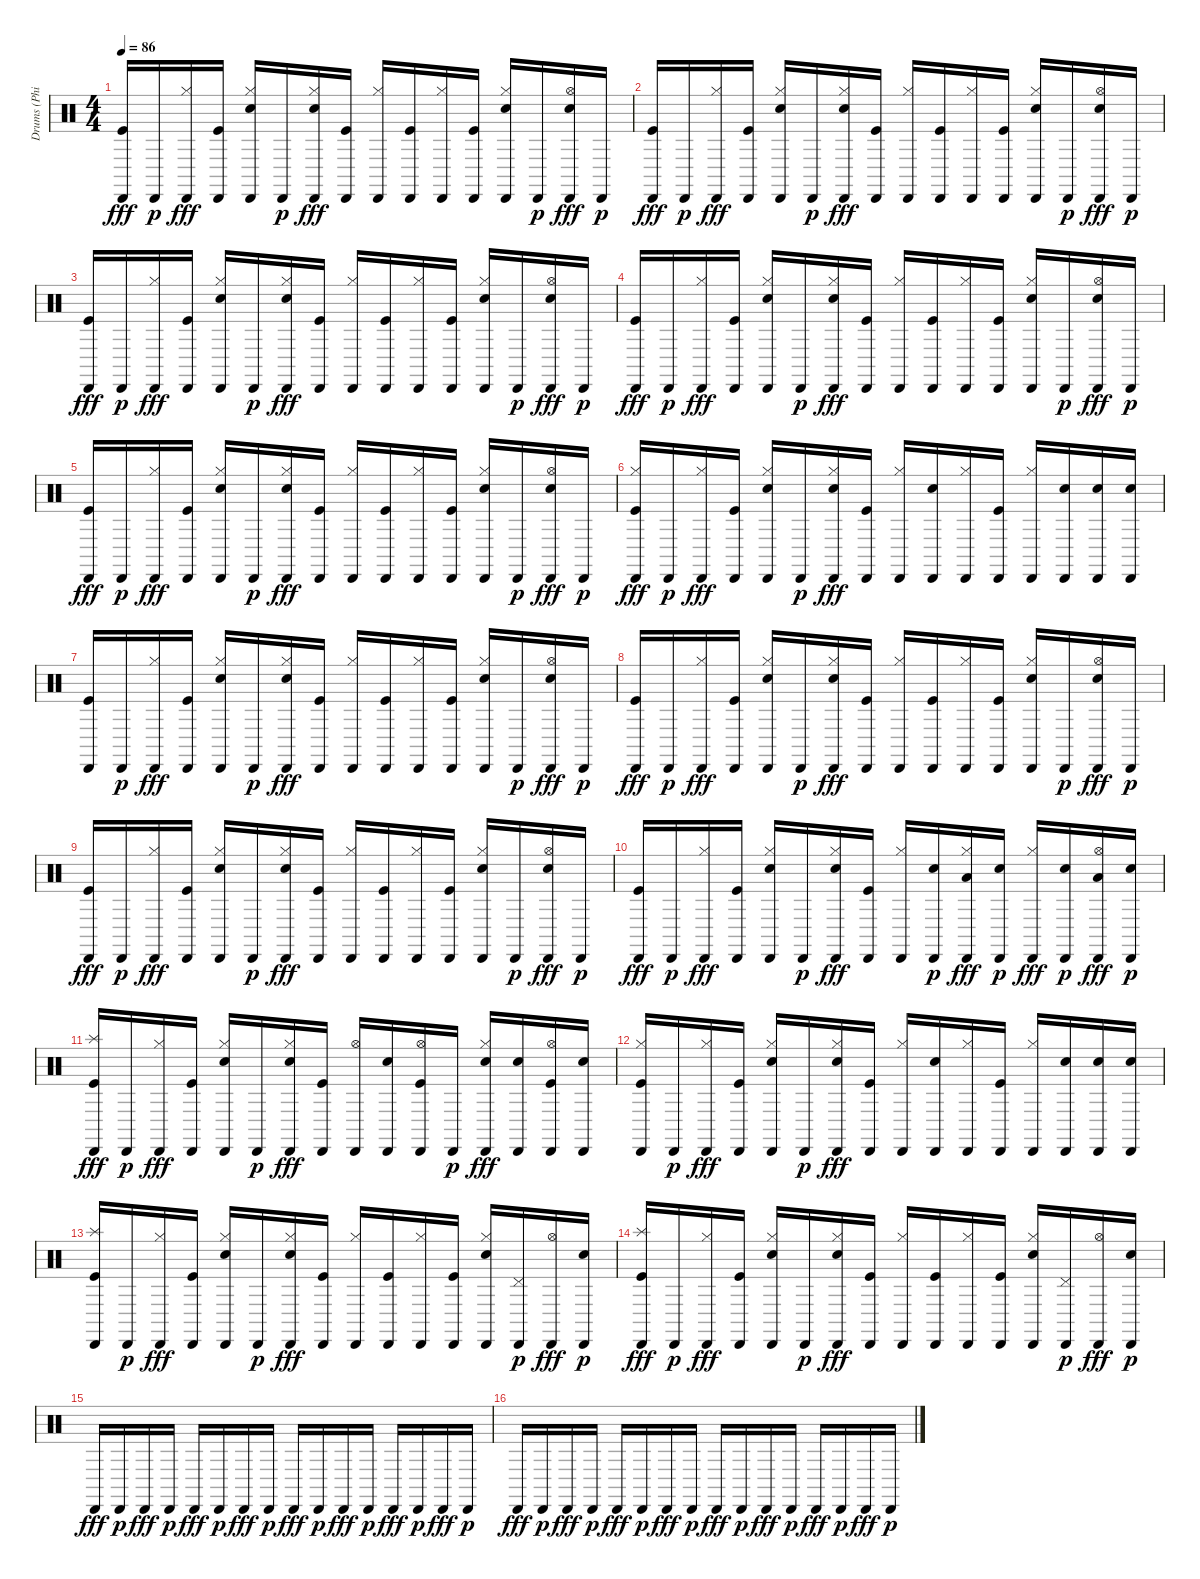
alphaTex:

\track ("Drums (Phil)" "Drums (Phi") {instrument percussion}
\staff {score}
\articulation defaults
\ts (4 4)
\tempo 86
\clef neutral
\ks c
("Cabasa (hit)" "Kick (hit)").16{dy fff} "Cabasa (hit)".16{dy p} ("Cabasa (hit)" "Hi-Hat (closed)").16{dy fff} ("Cabasa (hit)" "Kick (hit)").16 ("Cabasa (hit)" "Hi-Hat (closed)" "Snare (hit) 2").16 "Cabasa (hit)".16{dy p} ("Cabasa (hit)" "Hi-Hat (closed)" "Snare (hit) 2").16{dy fff} ("Cabasa (hit)" "Kick (hit)").16 ("Cabasa (hit)" "Hi-Hat (closed)").16 ("Cabasa (hit)" "Kick (hit)").16 ("Cabasa (hit)" "Hi-Hat (closed)").16 ("Cabasa (hit)" "Kick (hit)").16 ("Cabasa (hit)" "Hi-Hat (closed)" "Snare (hit) 2").16 "Cabasa (hit)".16{dy p} ("Cabasa (hit)" "Hi-Hat (open)" "Snare (hit) 2").16{dy fff} "Cabasa (hit)".16{dy p} |
("Cabasa (hit)" "Kick (hit)").16{dy fff} "Cabasa (hit)".16{dy p} ("Cabasa (hit)" "Hi-Hat (closed)").16{dy fff} ("Cabasa (hit)" "Kick (hit)").16 ("Cabasa (hit)" "Hi-Hat (closed)" "Snare (hit) 2").16 "Cabasa (hit)".16{dy p} ("Cabasa (hit)" "Hi-Hat (closed)" "Snare (hit) 2").16{dy fff} ("Cabasa (hit)" "Kick (hit)").16 ("Cabasa (hit)" "Hi-Hat (closed)").16 ("Cabasa (hit)" "Kick (hit)").16 ("Cabasa (hit)" "Hi-Hat (closed)").16 ("Cabasa (hit)" "Kick (hit)").16 ("Cabasa (hit)" "Hi-Hat (closed)" "Snare (hit) 2").16 "Cabasa (hit)".16{dy p} ("Cabasa (hit)" "Hi-Hat (open)" "Snare (hit) 2").16{dy fff} "Cabasa (hit)".16{dy p} |
("Cabasa (hit)" "Kick (hit)").16{dy fff} "Cabasa (hit)".16{dy p} ("Cabasa (hit)" "Hi-Hat (closed)").16{dy fff} ("Cabasa (hit)" "Kick (hit)").16 ("Cabasa (hit)" "Hi-Hat (closed)" "Snare (hit) 2").16 "Cabasa (hit)".16{dy p} ("Cabasa (hit)" "Hi-Hat (closed)" "Snare (hit) 2").16{dy fff} ("Cabasa (hit)" "Kick (hit)").16 ("Cabasa (hit)" "Hi-Hat (closed)").16 ("Cabasa (hit)" "Kick (hit)").16 ("Cabasa (hit)" "Hi-Hat (closed)").16 ("Cabasa (hit)" "Kick (hit)").16 ("Cabasa (hit)" "Hi-Hat (closed)" "Snare (hit) 2").16 "Cabasa (hit)".16{dy p} ("Cabasa (hit)" "Hi-Hat (open)" "Snare (hit) 2").16{dy fff} "Cabasa (hit)".16{dy p} |
("Cabasa (hit)" "Kick (hit)").16{dy fff} "Cabasa (hit)".16{dy p} ("Cabasa (hit)" "Hi-Hat (closed)").16{dy fff} ("Cabasa (hit)" "Kick (hit)").16 ("Cabasa (hit)" "Hi-Hat (closed)" "Snare (hit) 2").16 "Cabasa (hit)".16{dy p} ("Cabasa (hit)" "Hi-Hat (closed)" "Snare (hit) 2").16{dy fff} ("Cabasa (hit)" "Kick (hit)").16 ("Cabasa (hit)" "Hi-Hat (closed)").16 ("Cabasa (hit)" "Kick (hit)").16 ("Cabasa (hit)" "Hi-Hat (closed)").16 ("Cabasa (hit)" "Kick (hit)").16 ("Cabasa (hit)" "Hi-Hat (closed)" "Snare (hit) 2").16 "Cabasa (hit)".16{dy p} ("Cabasa (hit)" "Hi-Hat (open)" "Snare (hit) 2").16{dy fff} "Cabasa (hit)".16{dy p} |
("Cabasa (hit)" "Kick (hit)").16{dy fff} "Cabasa (hit)".16{dy p} ("Cabasa (hit)" "Hi-Hat (closed)").16{dy fff} ("Cabasa (hit)" "Kick (hit)").16 ("Cabasa (hit)" "Hi-Hat (closed)" "Snare (hit) 2").16 "Cabasa (hit)".16{dy p} ("Cabasa (hit)" "Hi-Hat (closed)" "Snare (hit) 2").16{dy fff} ("Cabasa (hit)" "Kick (hit)").16 ("Cabasa (hit)" "Hi-Hat (closed)").16 ("Cabasa (hit)" "Kick (hit)").16 ("Cabasa (hit)" "Hi-Hat (closed)").16 ("Cabasa (hit)" "Kick (hit)").16 ("Cabasa (hit)" "Hi-Hat (closed)" "Snare (hit) 2").16 "Cabasa (hit)".16{dy p} ("Cabasa (hit)" "Hi-Hat (open)" "Snare (hit) 2").16{dy fff} "Cabasa (hit)".16{dy p} |
("Cabasa (hit)" "Hi-Hat (closed)" "Kick (hit)").16{dy fff} "Cabasa (hit)".16{dy p} ("Cabasa (hit)" "Hi-Hat (closed)").16{dy fff} ("Cabasa (hit)" "Kick (hit)").16 ("Cabasa (hit)" "Hi-Hat (closed)" "Snare (hit) 2").16 "Cabasa (hit)".16{dy p} ("Cabasa (hit)" "Hi-Hat (closed)" "Snare (hit) 2").16{dy fff} ("Cabasa (hit)" "Kick (hit)").16 ("Cabasa (hit)" "Hi-Hat (closed)").16 ("Cabasa (hit)" "Snare (hit) 2").16 ("Cabasa (hit)" "Hi-Hat (closed)").16 ("Cabasa (hit)" "Kick (hit)").16 ("Cabasa (hit)" "Hi-Hat (closed)").16 ("Cabasa (hit)" "Snare (hit) 2").16 ("Cabasa (hit)" "Snare (hit) 2").16 ("Cabasa (hit)" "Snare (hit) 2").16 |
("Cabasa (hit)" "Kick (hit)").16 "Cabasa (hit)".16{dy p} ("Cabasa (hit)" "Hi-Hat (closed)").16{dy fff} ("Cabasa (hit)" "Kick (hit)").16 ("Cabasa (hit)" "Hi-Hat (closed)" "Snare (hit) 2").16 "Cabasa (hit)".16{dy p} ("Cabasa (hit)" "Hi-Hat (closed)" "Snare (hit) 2").16{dy fff} ("Cabasa (hit)" "Kick (hit)").16 ("Cabasa (hit)" "Hi-Hat (closed)").16 ("Cabasa (hit)" "Kick (hit)").16 ("Cabasa (hit)" "Hi-Hat (closed)").16 ("Cabasa (hit)" "Kick (hit)").16 ("Cabasa (hit)" "Hi-Hat (closed)" "Snare (hit) 2").16 "Cabasa (hit)".16{dy p} ("Cabasa (hit)" "Hi-Hat (open)" "Snare (hit) 2").16{dy fff} "Cabasa (hit)".16{dy p} |
("Cabasa (hit)" "Kick (hit)").16{dy fff} "Cabasa (hit)".16{dy p} ("Cabasa (hit)" "Hi-Hat (closed)").16{dy fff} ("Cabasa (hit)" "Kick (hit)").16 ("Cabasa (hit)" "Hi-Hat (closed)" "Snare (hit) 2").16 "Cabasa (hit)".16{dy p} ("Cabasa (hit)" "Hi-Hat (closed)" "Snare (hit) 2").16{dy fff} ("Cabasa (hit)" "Kick (hit)").16 ("Cabasa (hit)" "Hi-Hat (closed)").16 ("Cabasa (hit)" "Kick (hit)").16 ("Cabasa (hit)" "Hi-Hat (closed)").16 ("Cabasa (hit)" "Kick (hit)").16 ("Cabasa (hit)" "Hi-Hat (closed)" "Snare (hit) 2").16 "Cabasa (hit)".16{dy p} ("Cabasa (hit)" "Hi-Hat (open)" "Snare (hit) 2").16{dy fff} "Cabasa (hit)".16{dy p} |
("Cabasa (hit)" "Kick (hit)").16{dy fff} "Cabasa (hit)".16{dy p} ("Cabasa (hit)" "Hi-Hat (closed)").16{dy fff} ("Cabasa (hit)" "Kick (hit)").16 ("Cabasa (hit)" "Hi-Hat (closed)" "Snare (hit) 2").16 "Cabasa (hit)".16{dy p} ("Cabasa (hit)" "Hi-Hat (closed)" "Snare (hit) 2").16{dy fff} ("Cabasa (hit)" "Kick (hit)").16 ("Cabasa (hit)" "Hi-Hat (closed)").16 ("Cabasa (hit)" "Kick (hit)").16 ("Cabasa (hit)" "Hi-Hat (closed)").16 ("Cabasa (hit)" "Kick (hit)").16 ("Cabasa (hit)" "Hi-Hat (closed)" "Snare (hit) 2").16 "Cabasa (hit)".16{dy p} ("Cabasa (hit)" "Hi-Hat (open)" "Snare (hit) 2").16{dy fff} "Cabasa (hit)".16{dy p} |
("Cabasa (hit)" "Kick (hit)").16{dy fff} "Cabasa (hit)".16{dy p} ("Cabasa (hit)" "Hi-Hat (closed)").16{dy fff} ("Cabasa (hit)" "Kick (hit)").16 ("Cabasa (hit)" "Hi-Hat (closed)" "Snare (hit) 2").16 "Cabasa (hit)".16{dy p} ("Cabasa (hit)" "Hi-Hat (closed)" "Snare (hit) 2").16{dy fff} ("Cabasa (hit)" "Kick (hit)").16 ("Cabasa (hit)" "Hi-Hat (closed)").16 ("Cabasa (hit)" "Snare (hit) 2").16{dy p} ("Cabasa (hit)" "Hi-Hat (closed)" "Low Tom (hit)").16{dy fff} ("Cabasa (hit)" "Snare (hit) 2").16{dy p} ("Cabasa (hit)" "Hi-Hat (closed)").16{dy fff} ("Cabasa (hit)" "Snare (hit) 2").16{dy p} ("Cabasa (hit)" "Hi-Hat (open)" "Low Tom (hit)").16{dy fff} ("Cabasa (hit)" "Snare (hit) 2").16{dy p} |
("Cabasa (hit)" "Splash (hit)" "Kick (hit)").16{dy fff} "Cabasa (hit)".16{dy p} ("Cabasa (hit)" "Hi-Hat (closed)").16{dy fff} ("Cabasa (hit)" "Kick (hit)").16 ("Cabasa (hit)" "Hi-Hat (closed)" "Snare (hit) 2").16 "Cabasa (hit)".16{dy p} ("Cabasa (hit)" "Hi-Hat (closed)" "Snare (hit) 2").16{dy fff} ("Cabasa (hit)" "Kick (hit)").16 ("Cabasa (hit)" "Hi-Hat (open)").16 ("Cabasa (hit)" "Snare (hit) 2").16 ("Cabasa (hit)" "Hi-Hat (open)" "Kick (hit)").16 "Cabasa (hit)".16{dy p} ("Cabasa (hit)" "Hi-Hat (closed)" "Snare (hit) 2").16{dy fff} ("Cabasa (hit)" "Snare (hit) 2").16 ("Cabasa (hit)" "Hi-Hat (open)" "Kick (hit)").16 ("Cabasa (hit)" "Snare (hit) 2").16 |
("Cabasa (hit)" "Hi-Hat (closed)" "Kick (hit)").16 "Cabasa (hit)".16{dy p} ("Cabasa (hit)" "Hi-Hat (closed)").16{dy fff} ("Cabasa (hit)" "Kick (hit)").16 ("Cabasa (hit)" "Hi-Hat (closed)" "Snare (hit) 2").16 "Cabasa (hit)".16{dy p} ("Cabasa (hit)" "Hi-Hat (closed)" "Snare (hit) 2").16{dy fff} ("Cabasa (hit)" "Kick (hit)").16 ("Cabasa (hit)" "Hi-Hat (closed)").16 ("Cabasa (hit)" "Snare (hit) 2").16 ("Cabasa (hit)" "Hi-Hat (closed)").16 ("Cabasa (hit)" "Kick (hit)").16 ("Cabasa (hit)" "Hi-Hat (closed)").16 ("Cabasa (hit)" "Snare (hit) 2").16 ("Cabasa (hit)" "Snare (hit) 2").16 ("Cabasa (hit)" "Snare (hit) 2").16 |
("Cabasa (hit)" "Splash (hit)" "Kick (hit)").16 "Cabasa (hit)".16{dy p} ("Cabasa (hit)" "Hi-Hat (closed)").16{dy fff} ("Cabasa (hit)" "Kick (hit)").16 ("Cabasa (hit)" "Hi-Hat (closed)" "Snare (hit) 2").16 "Cabasa (hit)".16{dy p} ("Cabasa (hit)" "Hi-Hat (closed)" "Snare (hit) 2").16{dy fff} ("Cabasa (hit)" "Kick (hit)").16 ("Cabasa (hit)" "Hi-Hat (closed)").16 ("Cabasa (hit)" "Kick (hit)").16 ("Cabasa (hit)" "Hi-Hat (closed)").16 ("Cabasa (hit)" "Kick (hit)").16 ("Cabasa (hit)" "Hi-Hat (closed)" "Snare (hit) 2").16 ("Cabasa (hit)" "Pedal Hi-Hat (hit)").16{dy p} ("Cabasa (hit)" "Hi-Hat (open)").16{dy fff} ("Cabasa (hit)" "Snare (hit) 2").16{dy p} |
("Cabasa (hit)" "Splash (hit)" "Kick (hit)").16{dy fff} "Cabasa (hit)".16{dy p} ("Cabasa (hit)" "Hi-Hat (closed)").16{dy fff} ("Cabasa (hit)" "Kick (hit)").16 ("Cabasa (hit)" "Hi-Hat (closed)" "Snare (hit) 2").16 "Cabasa (hit)".16{dy p} ("Cabasa (hit)" "Hi-Hat (closed)" "Snare (hit) 2").16{dy fff} ("Cabasa (hit)" "Kick (hit)").16 ("Cabasa (hit)" "Hi-Hat (closed)").16 ("Cabasa (hit)" "Kick (hit)").16 ("Cabasa (hit)" "Hi-Hat (closed)").16 ("Cabasa (hit)" "Kick (hit)").16 ("Cabasa (hit)" "Hi-Hat (closed)" "Snare (hit) 2").16 ("Cabasa (hit)" "Pedal Hi-Hat (hit)").16{dy p} ("Cabasa (hit)" "Hi-Hat (open)").16{dy fff} ("Cabasa (hit)" "Snare (hit) 2").16{dy p} |
"Cabasa (hit)".16{dy fff} "Cabasa (hit)".16{dy p} "Cabasa (hit)".16{dy fff} "Cabasa (hit)".16{dy p} "Cabasa (hit)".16{dy fff} "Cabasa (hit)".16{dy p} "Cabasa (hit)".16{dy fff} "Cabasa (hit)".16{dy p} "Cabasa (hit)".16{dy fff} "Cabasa (hit)".16{dy p} "Cabasa (hit)".16{dy fff} "Cabasa (hit)".16{dy p} "Cabasa (hit)".16{dy fff} "Cabasa (hit)".16{dy p} "Cabasa (hit)".16{dy fff} "Cabasa (hit)".16{dy p} |
"Cabasa (hit)".16{dy fff} "Cabasa (hit)".16{dy p} "Cabasa (hit)".16{dy fff} "Cabasa (hit)".16{dy p} "Cabasa (hit)".16{dy fff} "Cabasa (hit)".16{dy p} "Cabasa (hit)".16{dy fff} "Cabasa (hit)".16{dy p} "Cabasa (hit)".16{dy fff} "Cabasa (hit)".16{dy p} "Cabasa (hit)".16{dy fff} "Cabasa (hit)".16{dy p} "Cabasa (hit)".16{dy fff} "Cabasa (hit)".16{dy p} "Cabasa (hit)".16{dy fff} "Cabasa (hit)".16{dy p}
